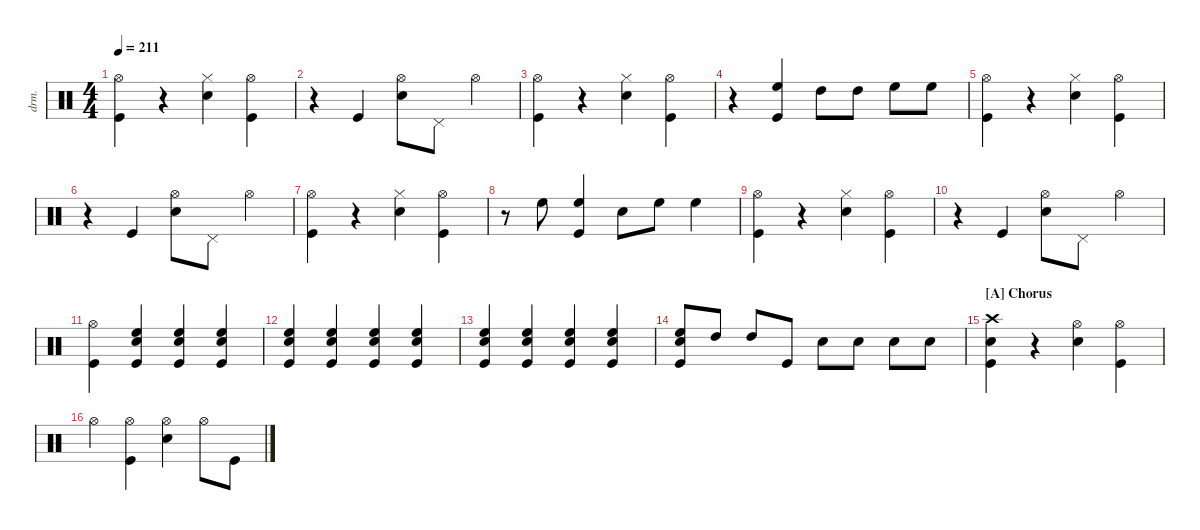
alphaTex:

\defaultSystemsLayout 4
\hideDynamics
\bracketExtendMode nobrackets
\track ("Drums" "drm.") {instrument percussion}
\staff {score}
\articulation defaults
\ts (4 4)
\tempo 211
\clef neutral
\ks c
("Kick (hit)" "Hi-Hat (open)"{acc #}).4{dy fff beam Down} r.4{beam Down} ("Snare (hit) 2" "Hi-Hat (closed)"{acc #}).4{dy ff beam Down} ("Kick (hit)" "Hi-Hat (open)"{acc #}).4{dy f beam Down} |
r.4{beam Down} "Kick (hit)".4{dy fff beam Up} ("Snare (hit) 2" "Hi-Hat (open)"{acc #}).8{dy ff beam Down} "Pedal Hi-Hat (hit)"{acc #}.8{beam Down} "Hi-Hat (open)"{acc #}.4{dy fff beam Down} |
("Kick (hit)" "Hi-Hat (open)"{acc #}).4{beam Down} r.4{beam Down} ("Snare (hit) 2" "Hi-Hat (closed)"{acc #}).4{dy ff beam Down} ("Kick (hit)" "Hi-Hat (open)"{acc #}).4{dy f beam Down} |
r.4{beam Down} ("Kick (hit)" "High Floor Tom (hit)").4{dy fff beam Up} "High Tom (hit)".8{dy ff beam Down} "High Tom (hit)".8{dy mf beam Down} "High Floor Tom (hit)".8{dy ff beam Down} "High Floor Tom (hit)".8{dy f beam Down} |
("Kick (hit)" "Hi-Hat (open)"{acc #}).4{dy fff beam Down} r.4{beam Down} ("Snare (hit) 2" "Hi-Hat (closed)"{acc #}).4{dy ff beam Down} ("Kick (hit)" "Hi-Hat (open)"{acc #}).4{dy f beam Down} |
r.4{beam Down} "Kick (hit)".4{dy fff beam Up} ("Snare (hit) 2" "Hi-Hat (open)"{acc #}).8{dy ff beam Down} "Pedal Hi-Hat (hit)"{acc #}.8{beam Down} "Hi-Hat (open)"{acc #}.4{dy fff beam Down} |
("Kick (hit)" "Hi-Hat (open)"{acc #}).4{beam Down} r.4{beam Down} ("Snare (hit) 2" "Hi-Hat (closed)"{acc #}).4{dy ff beam Down} ("Kick (hit)" "Hi-Hat (open)"{acc #}).4{dy f beam Down} |
r.8{beam Down} "High Floor Tom (hit)".8{dy mp beam Down} ("Kick (hit)" "High Floor Tom (hit)").4{dy fff beam Up} "Snare (hit) 2".8{dy ff beam Down} "High Floor Tom (hit)".8{dy p beam Down} "High Floor Tom (hit)".4{dy ff beam Down} |
("Kick (hit)" "Hi-Hat (open)"{acc #}).4{dy fff beam Down} r.4{beam Down} ("Snare (hit) 2" "Hi-Hat (closed)"{acc #}).4{dy ff beam Down} ("Kick (hit)" "Hi-Hat (open)"{acc #}).4{dy f beam Down} |
r.4{beam Down} "Kick (hit)".4{dy fff beam Up} ("Snare (hit) 2" "Hi-Hat (open)"{acc #}).8{dy ff beam Down} "Pedal Hi-Hat (hit)"{acc #}.8{beam Down} "Hi-Hat (open)"{acc #}.4{dy fff beam Down} |
("Kick (hit)" "Hi-Hat (open)"{acc #}).4{beam Down} ("Kick (hit)" "Snare (hit) 2" "High Floor Tom (hit)").4{dy ff beam Up} ("Kick (hit)" "Snare (hit) 2" "High Floor Tom (hit)").4{beam Up} ("Kick (hit)" "Snare (hit) 2" "High Floor Tom (hit)").4{beam Up} |
("Snare (hit) 2" "Kick (hit)" "High Floor Tom (hit)").4{beam Up} ("Kick (hit)" "Snare (hit) 2" "High Floor Tom (hit)").4{beam Up} ("Snare (hit) 2" "Kick (hit)" "High Floor Tom (hit)").4{beam Up} ("Snare (hit) 2" "Kick (hit)" "High Floor Tom (hit)").4{beam Up} |
("Kick (hit)" "Snare (hit) 2" "High Floor Tom (hit)").4{beam Up} ("Kick (hit)" "Snare (hit) 2" "High Floor Tom (hit)").4{beam Up} ("Snare (hit) 2" "Kick (hit)" "High Floor Tom (hit)").4{beam Up} ("Kick (hit)" "Snare (hit) 2" "High Floor Tom (hit)").4{beam Up} |
("Kick (hit)" "Snare (hit) 2" "High Floor Tom (hit)").8{beam Up} "High Tom (hit)".8{dy f beam Up} "High Tom (hit)".8{dy mp beam Up} "Kick (hit)".8{dy ff beam Up} "Snare (hit) 2".8{dy fff beam Down} "Snare (hit) 2".8{dy f beam Down} "Snare (hit) 2".8{dy fff beam Down} "Snare (hit) 2".8{dy f beam Down} |
\section ("A" "Chorus")
("Kick (hit)" "Snare (hit) 2" "Crash high (hit)"{acc #}).4{dy fff beam Down} r.4{beam Down} ("Snare (hit) 2" "Hi-Hat (open)"{acc #}).4{dy ff beam Down} ("Kick (hit)" "Hi-Hat (open)"{acc #}).4{beam Down} |
"Hi-Hat (open)"{acc #}.4{dy fff beam Down} ("Kick (hit)" "Hi-Hat (open)"{acc #}).4{dy ff beam Down} ("Snare (hit) 2" "Hi-Hat (open)"{acc #}).4{beam Down} "Hi-Hat (open)"{acc #}.8{dy mf beam Down} "Kick (hit)".8{beam Down}
